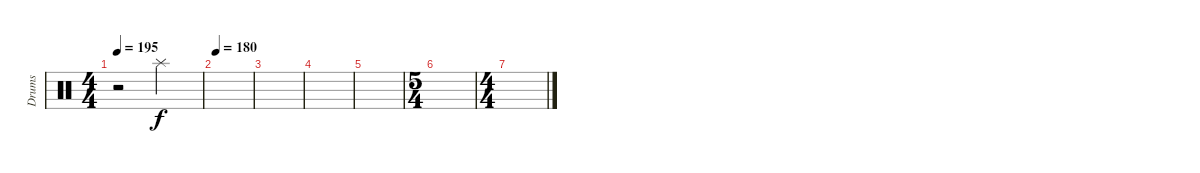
\track ("Drums" "Drums") {instrument percussion}
\staff {score}
\articulation defaults
\ts (4 4)
\tempo 195
\clef neutral
\ks c
r.2{dy f} "Splash (hit)".2 |
\tempo 180
|
|
|
|
\ts (5 4)
|
\ts (4 4)
